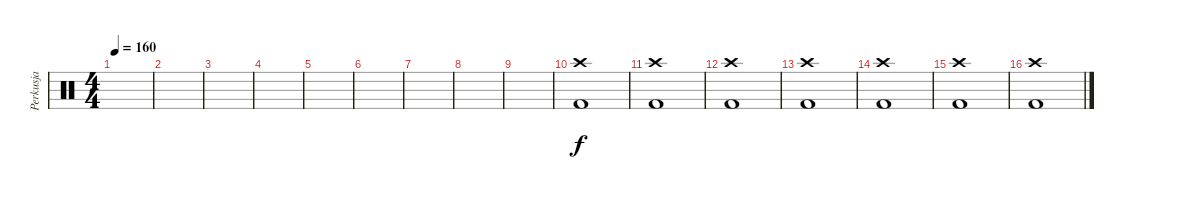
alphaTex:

\track ("Perkusja" "Perkusja") {instrument percussion}
\staff {score}
\articulation defaults
\ts (4 4)
\tempo 160
\clef neutral
\ks c
|
|
|
|
|
|
|
|
|
("Crash high (hit)" "Kick (hit) 2").1 |
("Crash high (hit)" "Kick (hit) 2").1 |
("Crash high (hit)" "Kick (hit) 2").1 |
("Crash high (hit)" "Kick (hit) 2").1 |
("Crash high (hit)" "Kick (hit) 2").1 |
("Crash high (hit)" "Kick (hit) 2").1 |
("Crash high (hit)" "Kick (hit) 2").1
